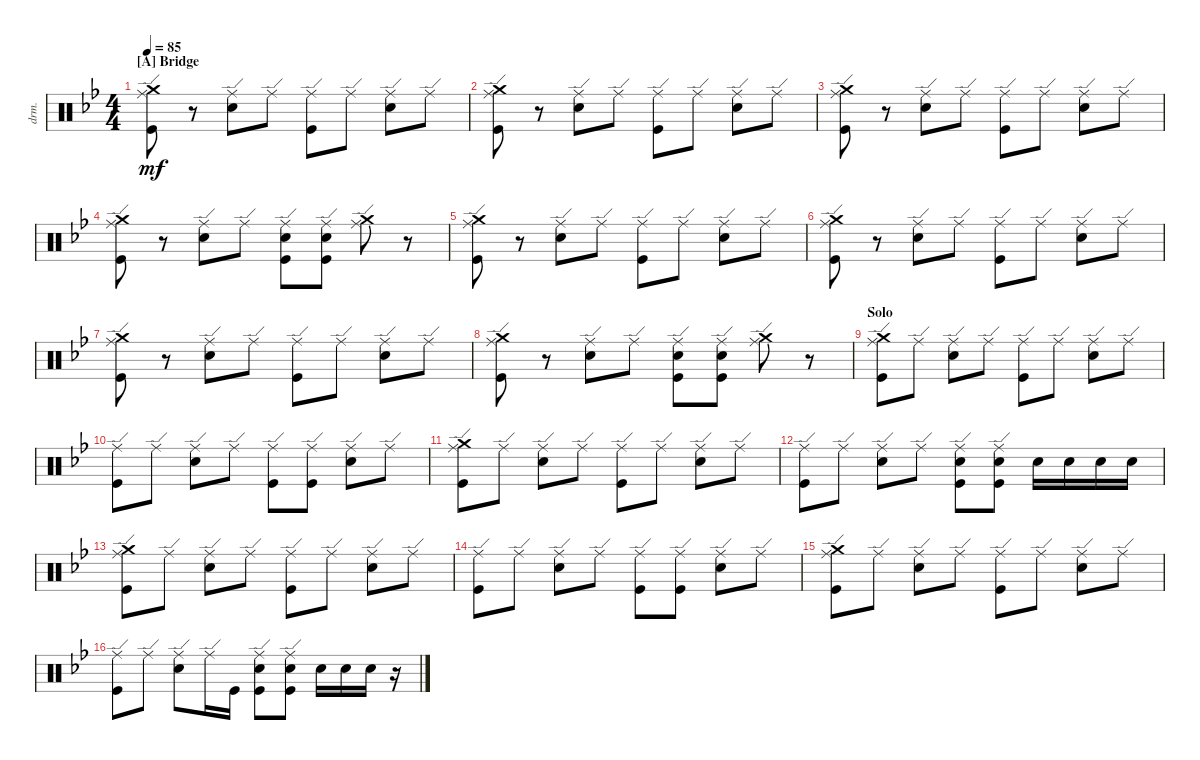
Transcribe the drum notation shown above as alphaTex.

\defaultSystemsLayout 4
\bracketExtendMode groupsimilarinstruments
\otherSystemsTrackNameOrientation horizontal
\track ("Drumkit" "drm.") {solo instrument percussion}
\staff {score}
\articulation defaults
\ts (4 4)
\section ("A" "Bridge")
\scale
1.06963
\tempo 85
\accidentals auto
\clef neutral
\ottava regular
\simile none
\ks bb
("Kick (hit)"{acc forcenatural} "Ride (edge)"{acc forcenatural} "Crash medium (hit)"{acc forcenatural}).8{dy mf beam Down} r.8{beam Down} ("Snare (hit) 2"{acc forcenatural} "Ride (edge)"{acc forcenatural}).8{beam Down} "Ride (edge)"{acc forcenatural}.8{beam Down} ("Kick (hit)"{acc forcenatural} "Ride (edge)"{acc forcenatural}).8{beam Down} "Ride (edge)"{acc forcenatural}.8{beam Down} ("Snare (hit) 2"{acc forcenatural} "Ride (edge)"{acc forcenatural}).8{beam Down} "Ride (edge)"{acc forcenatural}.8{beam Down} |
\scale
0.97679 ("Kick (hit)"{acc forcenatural} "Ride (edge)"{acc forcenatural} "Crash medium (hit)"{acc forcenatural}).8{beam Down} r.8{beam Down} ("Snare (hit) 2"{acc forcenatural} "Ride (edge)"{acc forcenatural}).8{beam Down} "Ride (edge)"{acc forcenatural}.8{beam Down} ("Kick (hit)"{acc forcenatural} "Ride (edge)"{acc forcenatural}).8{beam Down} "Ride (edge)"{acc forcenatural}.8{beam Down} ("Snare (hit) 2"{acc forcenatural} "Ride (edge)"{acc forcenatural}).8{beam Down} "Ride (edge)"{acc forcenatural}.8{beam Down} |
\scale
0.97679 ("Kick (hit)"{acc forcenatural} "Ride (edge)"{acc forcenatural} "Crash medium (hit)"{acc forcenatural}).8{beam Down} r.8{beam Down} ("Snare (hit) 2"{acc forcenatural} "Ride (edge)"{acc forcenatural}).8{beam Down} "Ride (edge)"{acc forcenatural}.8{beam Down} ("Kick (hit)"{acc forcenatural} "Ride (edge)"{acc forcenatural}).8{beam Down} "Ride (edge)"{acc forcenatural}.8{beam Down} ("Snare (hit) 2"{acc forcenatural} "Ride (edge)"{acc forcenatural}).8{beam Down} "Ride (edge)"{acc forcenatural}.8{beam Down} |
\scale
0.97679 ("Kick (hit)"{acc forcenatural} "Ride (edge)"{acc forcenatural} "Crash medium (hit)"{acc forcenatural}).8{beam Down} r.8{beam Down} ("Snare (hit) 2"{acc forcenatural} "Ride (edge)"{acc forcenatural}).8{beam Down} "Ride (edge)"{acc forcenatural}.8{beam Down} ("Kick (hit)"{acc forcenatural} "Ride (edge)"{acc forcenatural} "Snare (hit) 2"{acc forcenatural}).8{beam Down} ("Ride (edge)"{acc forcenatural} "Snare (hit) 2"{acc forcenatural} "Kick (hit)"{acc forcenatural}).8{beam Down} ("Ride (edge)"{acc forcenatural} "Crash medium (hit)"{acc forcenatural}).8{beam Down} r.8{beam Down} |
\scale
1.06495 ("Kick (hit)"{acc forcenatural} "Ride (edge)"{acc forcenatural} "Crash medium (hit)"{acc forcenatural}).8{beam Down} r.8{beam Down} ("Snare (hit) 2"{acc forcenatural} "Ride (edge)"{acc forcenatural}).8{beam Down} "Ride (edge)"{acc forcenatural}.8{beam Down} ("Kick (hit)"{acc forcenatural} "Ride (edge)"{acc forcenatural}).8{beam Down} "Ride (edge)"{acc forcenatural}.8{beam Down} ("Snare (hit) 2"{acc forcenatural} "Ride (edge)"{acc forcenatural}).8{beam Down} "Ride (edge)"{acc forcenatural}.8{beam Down} |
\scale
0.972111 ("Kick (hit)"{acc forcenatural} "Ride (edge)"{acc forcenatural} "Crash medium (hit)"{acc forcenatural}).8{beam Down} r.8{beam Down} ("Snare (hit) 2"{acc forcenatural} "Ride (edge)"{acc forcenatural}).8{beam Down} "Ride (edge)"{acc forcenatural}.8{beam Down} ("Kick (hit)"{acc forcenatural} "Ride (edge)"{acc forcenatural}).8{beam Down} "Ride (edge)"{acc forcenatural}.8{beam Down} ("Snare (hit) 2"{acc forcenatural} "Ride (edge)"{acc forcenatural}).8{beam Down} "Ride (edge)"{acc forcenatural}.8{beam Down} |
\scale
0.972111 ("Kick (hit)"{acc forcenatural} "Ride (edge)"{acc forcenatural} "Crash medium (hit)"{acc forcenatural}).8{beam Down} r.8{beam Down} ("Snare (hit) 2"{acc forcenatural} "Ride (edge)"{acc forcenatural}).8{beam Down} "Ride (edge)"{acc forcenatural}.8{beam Down} ("Kick (hit)"{acc forcenatural} "Ride (edge)"{acc forcenatural}).8{beam Down} "Ride (edge)"{acc forcenatural}.8{beam Down} ("Snare (hit) 2"{acc forcenatural} "Ride (edge)"{acc forcenatural}).8{beam Down} "Ride (edge)"{acc forcenatural}.8{beam Down} |
\scale
0.990827 ("Kick (hit)"{acc forcenatural} "Ride (edge)"{acc forcenatural} "Crash medium (hit)"{acc forcenatural}).8{beam Down} r.8{beam Down} ("Snare (hit) 2"{acc forcenatural} "Ride (edge)"{acc forcenatural}).8{beam Down} "Ride (edge)"{acc forcenatural}.8{beam Down} ("Kick (hit)"{acc forcenatural} "Ride (edge)"{acc forcenatural} "Snare (hit) 2"{acc forcenatural}).8{beam Down} ("Ride (edge)"{acc forcenatural} "Snare (hit) 2"{acc forcenatural} "Kick (hit)"{acc forcenatural}).8{beam Down} ("Ride (edge)"{acc forcenatural} "Crash medium (hit)"{acc forcenatural}).8{beam Down} r.8{beam Down} |
\section ("" "Solo")
\scale
1.06963 ("Kick (hit)"{acc forcenatural} "Ride (edge)"{acc forcenatural} "Crash medium (hit)"{acc forcenatural}).8{beam Down} "Ride (edge)"{acc forcenatural}.8{beam Down} ("Snare (hit) 2"{acc forcenatural} "Ride (edge)"{acc forcenatural}).8{beam Down} "Ride (edge)"{acc forcenatural}.8{beam Down} ("Kick (hit)"{acc forcenatural} "Ride (edge)"{acc forcenatural}).8{beam Down} "Ride (edge)"{acc forcenatural}.8{beam Down} ("Snare (hit) 2"{acc forcenatural} "Ride (edge)"{acc forcenatural}).8{beam Down} "Ride (edge)"{acc forcenatural}.8{beam Down} |
\scale
0.97679 ("Kick (hit)"{acc forcenatural} "Ride (edge)"{acc forcenatural}).8{beam Down} "Ride (edge)"{acc forcenatural}.8{beam Down} ("Snare (hit) 2"{acc forcenatural} "Ride (edge)"{acc forcenatural}).8{beam Down} "Ride (edge)"{acc forcenatural}.8{beam Down} ("Kick (hit)"{acc forcenatural} "Ride (edge)"{acc forcenatural}).8{beam Down} ("Ride (edge)"{acc forcenatural} "Kick (hit)"{acc forcenatural}).8{beam Down} ("Snare (hit) 2"{acc forcenatural} "Ride (edge)"{acc forcenatural}).8{beam Down} "Ride (edge)"{acc forcenatural}.8{beam Down} |
\scale
0.97679 ("Kick (hit)"{acc forcenatural} "Ride (edge)"{acc forcenatural} "Crash medium (hit)"{acc forcenatural}).8{beam Down} "Ride (edge)"{acc forcenatural}.8{beam Down} ("Snare (hit) 2"{acc forcenatural} "Ride (edge)"{acc forcenatural}).8{beam Down} "Ride (edge)"{acc forcenatural}.8{beam Down} ("Kick (hit)"{acc forcenatural} "Ride (edge)"{acc forcenatural}).8{beam Down} "Ride (edge)"{acc forcenatural}.8{beam Down} ("Snare (hit) 2"{acc forcenatural} "Ride (edge)"{acc forcenatural}).8{beam Down} "Ride (edge)"{acc forcenatural}.8{beam Down} |
\scale
0.97679 ("Kick (hit)"{acc forcenatural} "Ride (edge)"{acc forcenatural}).8{beam Down} "Ride (edge)"{acc forcenatural}.8{beam Down} ("Snare (hit) 2"{acc forcenatural} "Ride (edge)"{acc forcenatural}).8{beam Down} "Ride (edge)"{acc forcenatural}.8{beam Down} ("Kick (hit)"{acc forcenatural} "Ride (edge)"{acc forcenatural} "Snare (hit) 2"{acc forcenatural}).8{beam Down} ("Ride (edge)"{acc forcenatural} "Kick (hit)"{acc forcenatural} "Snare (hit) 2"{acc forcenatural}).8{beam Down} "Snare (hit) 2"{acc forcenatural}.16{beam Down} "Snare (hit) 2"{acc forcenatural}.16{beam Down} "Snare (hit) 2"{acc forcenatural}.16{beam Down} "Snare (hit) 2"{acc forcenatural}.16{beam Down} |
\scale
1.06495 ("Kick (hit)"{acc forcenatural} "Ride (edge)"{acc forcenatural} "Crash medium (hit)"{acc forcenatural}).8{beam Down} "Ride (edge)"{acc forcenatural}.8{beam Down} ("Snare (hit) 2"{acc forcenatural} "Ride (edge)"{acc forcenatural}).8{beam Down} "Ride (edge)"{acc forcenatural}.8{beam Down} ("Kick (hit)"{acc forcenatural} "Ride (edge)"{acc forcenatural}).8{beam Down} "Ride (edge)"{acc forcenatural}.8{beam Down} ("Snare (hit) 2"{acc forcenatural} "Ride (edge)"{acc forcenatural}).8{beam Down} "Ride (edge)"{acc forcenatural}.8{beam Down} |
\scale
0.972111 ("Kick (hit)"{acc forcenatural} "Ride (edge)"{acc forcenatural}).8{beam Down} "Ride (edge)"{acc forcenatural}.8{beam Down} ("Snare (hit) 2"{acc forcenatural} "Ride (edge)"{acc forcenatural}).8{beam Down} "Ride (edge)"{acc forcenatural}.8{beam Down} ("Kick (hit)"{acc forcenatural} "Ride (edge)"{acc forcenatural}).8{beam Down} ("Ride (edge)"{acc forcenatural} "Kick (hit)"{acc forcenatural}).8{beam Down} ("Snare (hit) 2"{acc forcenatural} "Ride (edge)"{acc forcenatural}).8{beam Down} "Ride (edge)"{acc forcenatural}.8{beam Down} |
\scale
0.972111 ("Kick (hit)"{acc forcenatural} "Ride (edge)"{acc forcenatural} "Crash medium (hit)"{acc forcenatural}).8{beam Down} "Ride (edge)"{acc forcenatural}.8{beam Down} ("Snare (hit) 2"{acc forcenatural} "Ride (edge)"{acc forcenatural}).8{beam Down} "Ride (edge)"{acc forcenatural}.8{beam Down} ("Kick (hit)"{acc forcenatural} "Ride (edge)"{acc forcenatural}).8{beam Down} "Ride (edge)"{acc forcenatural}.8{beam Down} ("Snare (hit) 2"{acc forcenatural} "Ride (edge)"{acc forcenatural}).8{beam Down} "Ride (edge)"{acc forcenatural}.8{beam Down} |
\scale
0.990827 ("Kick (hit)"{acc forcenatural} "Ride (edge)"{acc forcenatural}).8{beam Down} "Ride (edge)"{acc forcenatural}.8{beam Down} ("Snare (hit) 2"{acc forcenatural} "Ride (edge)"{acc forcenatural}).8{beam Down} "Ride (edge)"{acc forcenatural}.16{beam Down} "Kick (hit)"{acc forcenatural}.16{beam Down} ("Kick (hit)"{acc forcenatural} "Ride (edge)"{acc forcenatural} "Snare (hit) 2"{acc forcenatural}).8{beam Down} ("Ride (edge)"{acc forcenatural} "Kick (hit)"{acc forcenatural} "Snare (hit) 2"{acc forcenatural}).8{beam Down} "Snare (hit) 2"{acc forcenatural}.16{beam Down} "Snare (hit) 2"{acc forcenatural}.16{beam Down} "Snare (hit) 2"{acc forcenatural}.16{beam Down} r.16{beam Down}
